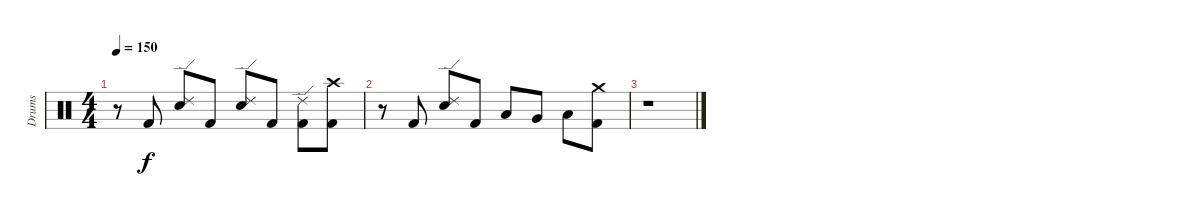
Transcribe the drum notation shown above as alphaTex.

\track ("Drums" "Drums") {instrument percussion}
\staff {score}
\articulation defaults
\ts (4 4)
\tempo 150
\clef neutral
\ks c
r.8{dy f} "Kick (hit) 2".8 ("Ride (edge) 2" "Snare (hit) 2").8 "Kick (hit) 2".8 ("Ride (edge) 2" "Snare (hit) 2").8 "Kick (hit) 2".8 ("Ride (edge) 2" "Kick (hit) 2").8 ("Crash high (hit)" "Kick (hit) 2").8 |
r.8 "Kick (hit) 2".8 ("Ride (edge) 2" "Snare (hit) 2").8 "Kick (hit) 2".8 "Low Tom (hit)".8 "Very Low Tom (hit)".8 "Low Floor Tom (hit)".8 ("Crash medium (hit)" "Kick (hit) 2").8 |
r.1
